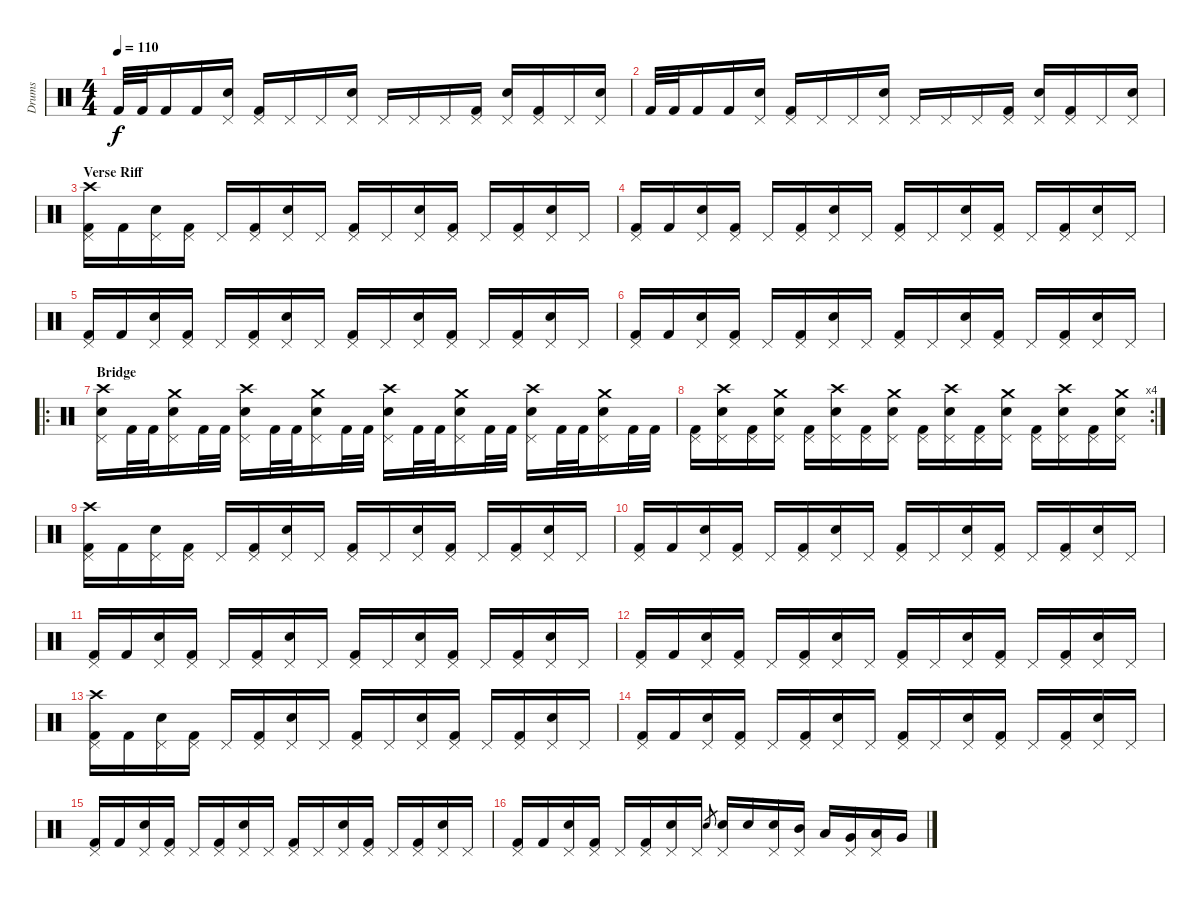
\track ("Drums" "Drums") {instrument percussion}
\staff {score}
\articulation defaults
\ts (4 4)
\tempo 110
\clef neutral
\ks c "Kick (hit) 2".32{dy f} "Kick (hit) 2".32 "Kick (hit) 2".16 "Kick (hit) 2".16
("Snare (hit) 2" "Pedal Hi-Hat (hit)").16 ("Kick (hit) 2" "Pedal Hi-Hat (hit)").16 "Pedal Hi-Hat (hit)".16 "Pedal Hi-Hat (hit)".16 ("Snare (hit) 2" "Pedal Hi-Hat (hit)").16 "Pedal Hi-Hat (hit)".16 "Pedal Hi-Hat (hit)".16 "Pedal Hi-Hat (hit)".16 ("Kick (hit) 2" "Pedal Hi-Hat (hit)").16 ("Snare (hit) 2" "Pedal Hi-Hat (hit)").16 ("Kick (hit) 2" "Pedal Hi-Hat (hit)").16 "Pedal Hi-Hat (hit)".16 ("Snare (hit) 2" "Pedal Hi-Hat (hit)").16 |
"Kick (hit) 2".32 "Kick (hit) 2".32 "Kick (hit) 2".16 "Kick (hit) 2".16 ("Snare (hit) 2" "Pedal Hi-Hat (hit)").16 ("Kick (hit) 2" "Pedal Hi-Hat (hit)").16 "Pedal Hi-Hat (hit)".16 "Pedal Hi-Hat (hit)".16 ("Snare (hit) 2" "Pedal Hi-Hat (hit)").16 "Pedal Hi-Hat (hit)".16 "Pedal Hi-Hat (hit)".16 "Pedal Hi-Hat (hit)".16 ("Kick (hit) 2" "Pedal Hi-Hat (hit)").16 ("Snare (hit) 2" "Pedal Hi-Hat (hit)").16 ("Kick (hit) 2" "Pedal Hi-Hat (hit)").16 "Pedal Hi-Hat (hit)".16 ("Snare (hit) 2" "Pedal Hi-Hat (hit)").16 |
\section ("" "Verse Riff")
("Kick (hit) 2" "Pedal Hi-Hat (hit)" "Crash high (hit)").16 "Kick (hit) 2".16 ("Snare (hit) 2" "Pedal Hi-Hat (hit)").16 ("Kick (hit) 2" "Pedal Hi-Hat (hit)").16 "Pedal Hi-Hat (hit)".16 ("Kick (hit) 2" "Pedal Hi-Hat (hit)").16 ("Snare (hit) 2" "Pedal Hi-Hat (hit)").16 "Pedal Hi-Hat (hit)".16 ("Kick (hit) 2" "Pedal Hi-Hat (hit)").16 "Pedal Hi-Hat (hit)".16 ("Snare (hit) 2" "Pedal Hi-Hat (hit)").16 ("Kick (hit) 2" "Pedal Hi-Hat (hit)").16 "Pedal Hi-Hat (hit)".16 ("Kick (hit) 2" "Pedal Hi-Hat (hit)").16 ("Snare (hit) 2" "Pedal Hi-Hat (hit)").16 "Pedal Hi-Hat (hit)".16 |
("Kick (hit) 2" "Pedal Hi-Hat (hit)").16 "Kick (hit) 2".16 ("Snare (hit) 2" "Pedal Hi-Hat (hit)").16 ("Kick (hit) 2" "Pedal Hi-Hat (hit)").16 "Pedal Hi-Hat (hit)".16 ("Kick (hit) 2" "Pedal Hi-Hat (hit)").16 ("Snare (hit) 2" "Pedal Hi-Hat (hit)").16 "Pedal Hi-Hat (hit)".16 ("Kick (hit) 2" "Pedal Hi-Hat (hit)").16 "Pedal Hi-Hat (hit)".16 ("Snare (hit) 2" "Pedal Hi-Hat (hit)").16 ("Kick (hit) 2" "Pedal Hi-Hat (hit)").16 "Pedal Hi-Hat (hit)".16 ("Kick (hit) 2" "Pedal Hi-Hat (hit)").16 ("Snare (hit) 2" "Pedal Hi-Hat (hit)").16 "Pedal Hi-Hat (hit)".16 |
("Kick (hit) 2" "Pedal Hi-Hat (hit)").16 "Kick (hit) 2".16 ("Snare (hit) 2" "Pedal Hi-Hat (hit)").16 ("Kick (hit) 2" "Pedal Hi-Hat (hit)").16 "Pedal Hi-Hat (hit)".16 ("Kick (hit) 2" "Pedal Hi-Hat (hit)").16 ("Snare (hit) 2" "Pedal Hi-Hat (hit)").16 "Pedal Hi-Hat (hit)".16 ("Kick (hit) 2" "Pedal Hi-Hat (hit)").16 "Pedal Hi-Hat (hit)".16 ("Snare (hit) 2" "Pedal Hi-Hat (hit)").16 ("Kick (hit) 2" "Pedal Hi-Hat (hit)").16 "Pedal Hi-Hat (hit)".16 ("Kick (hit) 2" "Pedal Hi-Hat (hit)").16 ("Snare (hit) 2" "Pedal Hi-Hat (hit)").16 "Pedal Hi-Hat (hit)".16 |
("Kick (hit) 2" "Pedal Hi-Hat (hit)").16 "Kick (hit) 2".16 ("Snare (hit) 2" "Pedal Hi-Hat (hit)").16 ("Kick (hit) 2" "Pedal Hi-Hat (hit)").16 "Pedal Hi-Hat (hit)".16 ("Kick (hit) 2" "Pedal Hi-Hat (hit)").16 ("Snare (hit) 2" "Pedal Hi-Hat (hit)").16 "Pedal Hi-Hat (hit)".16 ("Kick (hit) 2" "Pedal Hi-Hat (hit)").16 "Pedal Hi-Hat (hit)".16 ("Snare (hit) 2" "Pedal Hi-Hat (hit)").16 ("Kick (hit) 2" "Pedal Hi-Hat (hit)").16 "Pedal Hi-Hat (hit)".16 ("Kick (hit) 2" "Pedal Hi-Hat (hit)").16 ("Snare (hit) 2" "Pedal Hi-Hat (hit)").16 "Pedal Hi-Hat (hit)".16 |
\ro
\section ("" "Bridge")
("Snare (hit) 2" "Pedal Hi-Hat (hit)" "Crash high (hit)").16 "Kick (hit) 2".32 "Kick (hit) 2".32 ("Snare (hit) 2" "Pedal Hi-Hat (hit)" "Crash medium (hit)").16 "Kick (hit) 2".32 "Kick (hit) 2".32 ("Snare (hit) 2" "Pedal Hi-Hat (hit)" "Crash high (hit)").16 "Kick (hit) 2".32 "Kick (hit) 2".32 ("Snare (hit) 2" "Pedal Hi-Hat (hit)" "Crash medium (hit)").16 "Kick (hit) 2".32 "Kick (hit) 2".32 ("Snare (hit) 2" "Pedal Hi-Hat (hit)" "Crash high (hit)").16 "Kick (hit) 2".32 "Kick (hit) 2".32 ("Snare (hit) 2" "Pedal Hi-Hat (hit)" "Crash medium (hit)").16 "Kick (hit) 2".32 "Kick (hit) 2".32 ("Snare (hit) 2" "Pedal Hi-Hat (hit)" "Crash high (hit)").16 "Kick (hit) 2".32 "Kick (hit) 2".32 ("Snare (hit) 2" "Pedal Hi-Hat (hit)" "Crash medium (hit)").16 "Kick (hit) 2".32 "Kick (hit) 2".32 |
\rc 4
("Kick (hit) 2" "Pedal Hi-Hat (hit)").16 ("Snare (hit) 2" "Pedal Hi-Hat (hit)" "Crash high (hit)").16 ("Kick (hit) 2" "Pedal Hi-Hat (hit)").16 ("Snare (hit) 2" "Pedal Hi-Hat (hit)" "Crash medium (hit)").16 ("Kick (hit) 2" "Pedal Hi-Hat (hit)").16 ("Snare (hit) 2" "Pedal Hi-Hat (hit)" "Crash high (hit)").16 ("Kick (hit) 2" "Pedal Hi-Hat (hit)").16 ("Snare (hit) 2" "Pedal Hi-Hat (hit)" "Crash medium (hit)").16 ("Kick (hit) 2" "Pedal Hi-Hat (hit)").16 ("Snare (hit) 2" "Pedal Hi-Hat (hit)" "Crash high (hit)").16 ("Kick (hit) 2" "Pedal Hi-Hat (hit)").16 ("Snare (hit) 2" "Pedal Hi-Hat (hit)" "Crash medium (hit)").16 ("Kick (hit) 2" "Pedal Hi-Hat (hit)").16 ("Snare (hit) 2" "Pedal Hi-Hat (hit)" "Crash high (hit)").16 ("Kick (hit) 2" "Pedal Hi-Hat (hit)").16 ("Snare (hit) 2" "Pedal Hi-Hat (hit)" "Crash medium (hit)").16 |
("Kick (hit) 2" "Pedal Hi-Hat (hit)" "Crash high (hit)").16 "Kick (hit) 2".16 ("Snare (hit) 2" "Pedal Hi-Hat (hit)").16 ("Kick (hit) 2" "Pedal Hi-Hat (hit)").16 "Pedal Hi-Hat (hit)".16 ("Kick (hit) 2" "Pedal Hi-Hat (hit)").16 ("Snare (hit) 2" "Pedal Hi-Hat (hit)").16 "Pedal Hi-Hat (hit)".16 ("Kick (hit) 2" "Pedal Hi-Hat (hit)").16 "Pedal Hi-Hat (hit)".16 ("Snare (hit) 2" "Pedal Hi-Hat (hit)").16 ("Kick (hit) 2" "Pedal Hi-Hat (hit)").16 "Pedal Hi-Hat (hit)".16 ("Kick (hit) 2" "Pedal Hi-Hat (hit)").16 ("Snare (hit) 2" "Pedal Hi-Hat (hit)").16 "Pedal Hi-Hat (hit)".16 |
("Kick (hit) 2" "Pedal Hi-Hat (hit)").16 "Kick (hit) 2".16 ("Snare (hit) 2" "Pedal Hi-Hat (hit)").16 ("Kick (hit) 2" "Pedal Hi-Hat (hit)").16 "Pedal Hi-Hat (hit)".16 ("Kick (hit) 2" "Pedal Hi-Hat (hit)").16 ("Snare (hit) 2" "Pedal Hi-Hat (hit)").16 "Pedal Hi-Hat (hit)".16 ("Kick (hit) 2" "Pedal Hi-Hat (hit)").16 "Pedal Hi-Hat (hit)".16 ("Snare (hit) 2" "Pedal Hi-Hat (hit)").16 ("Kick (hit) 2" "Pedal Hi-Hat (hit)").16 "Pedal Hi-Hat (hit)".16 ("Kick (hit) 2" "Pedal Hi-Hat (hit)").16 ("Snare (hit) 2" "Pedal Hi-Hat (hit)").16 "Pedal Hi-Hat (hit)".16 |
("Kick (hit) 2" "Pedal Hi-Hat (hit)").16 "Kick (hit) 2".16 ("Snare (hit) 2" "Pedal Hi-Hat (hit)").16 ("Kick (hit) 2" "Pedal Hi-Hat (hit)").16 "Pedal Hi-Hat (hit)".16 ("Kick (hit) 2" "Pedal Hi-Hat (hit)").16 ("Snare (hit) 2" "Pedal Hi-Hat (hit)").16 "Pedal Hi-Hat (hit)".16 ("Kick (hit) 2" "Pedal Hi-Hat (hit)").16 "Pedal Hi-Hat (hit)".16 ("Snare (hit) 2" "Pedal Hi-Hat (hit)").16 ("Kick (hit) 2" "Pedal Hi-Hat (hit)").16 "Pedal Hi-Hat (hit)".16 ("Kick (hit) 2" "Pedal Hi-Hat (hit)").16 ("Snare (hit) 2" "Pedal Hi-Hat (hit)").16 "Pedal Hi-Hat (hit)".16 |
("Kick (hit) 2" "Pedal Hi-Hat (hit)").16 "Kick (hit) 2".16 ("Snare (hit) 2" "Pedal Hi-Hat (hit)").16 ("Kick (hit) 2" "Pedal Hi-Hat (hit)").16 "Pedal Hi-Hat (hit)".16 ("Kick (hit) 2" "Pedal Hi-Hat (hit)").16 ("Snare (hit) 2" "Pedal Hi-Hat (hit)").16 "Pedal Hi-Hat (hit)".16 ("Kick (hit) 2" "Pedal Hi-Hat (hit)").16 "Pedal Hi-Hat (hit)".16 ("Snare (hit) 2" "Pedal Hi-Hat (hit)").16 ("Kick (hit) 2" "Pedal Hi-Hat (hit)").16 "Pedal Hi-Hat (hit)".16 ("Kick (hit) 2" "Pedal Hi-Hat (hit)").16 ("Snare (hit) 2" "Pedal Hi-Hat (hit)").16 "Pedal Hi-Hat (hit)".16 |
("Kick (hit) 2" "Pedal Hi-Hat (hit)" "Crash high (hit)").16 "Kick (hit) 2".16 ("Snare (hit) 2" "Pedal Hi-Hat (hit)").16 ("Kick (hit) 2" "Pedal Hi-Hat (hit)").16 "Pedal Hi-Hat (hit)".16 ("Kick (hit) 2" "Pedal Hi-Hat (hit)").16 ("Snare (hit) 2" "Pedal Hi-Hat (hit)").16 "Pedal Hi-Hat (hit)".16 ("Kick (hit) 2" "Pedal Hi-Hat (hit)").16 "Pedal Hi-Hat (hit)".16 ("Snare (hit) 2" "Pedal Hi-Hat (hit)").16 ("Kick (hit) 2" "Pedal Hi-Hat (hit)").16 "Pedal Hi-Hat (hit)".16 ("Kick (hit) 2" "Pedal Hi-Hat (hit)").16 ("Snare (hit) 2" "Pedal Hi-Hat (hit)").16 "Pedal Hi-Hat (hit)".16 |
("Kick (hit) 2" "Pedal Hi-Hat (hit)").16 "Kick (hit) 2".16 ("Snare (hit) 2" "Pedal Hi-Hat (hit)").16 ("Kick (hit) 2" "Pedal Hi-Hat (hit)").16 "Pedal Hi-Hat (hit)".16 ("Kick (hit) 2" "Pedal Hi-Hat (hit)").16 ("Snare (hit) 2" "Pedal Hi-Hat (hit)").16 "Pedal Hi-Hat (hit)".16 ("Kick (hit) 2" "Pedal Hi-Hat (hit)").16 "Pedal Hi-Hat (hit)".16 ("Snare (hit) 2" "Pedal Hi-Hat (hit)").16 ("Kick (hit) 2" "Pedal Hi-Hat (hit)").16 "Pedal Hi-Hat (hit)".16 ("Kick (hit) 2" "Pedal Hi-Hat (hit)").16 ("Snare (hit) 2" "Pedal Hi-Hat (hit)").16 "Pedal Hi-Hat (hit)".16 |
("Kick (hit) 2" "Pedal Hi-Hat (hit)").16 "Kick (hit) 2".16 ("Snare (hit) 2" "Pedal Hi-Hat (hit)").16 ("Kick (hit) 2" "Pedal Hi-Hat (hit)").16 "Pedal Hi-Hat (hit)".16 ("Kick (hit) 2" "Pedal Hi-Hat (hit)").16 ("Snare (hit) 2" "Pedal Hi-Hat (hit)").16 "Pedal Hi-Hat (hit)".16 ("Kick (hit) 2" "Pedal Hi-Hat (hit)").16 "Pedal Hi-Hat (hit)".16 ("Snare (hit) 2" "Pedal Hi-Hat (hit)").16 ("Kick (hit) 2" "Pedal Hi-Hat (hit)").16 "Pedal Hi-Hat (hit)".16 ("Kick (hit) 2" "Pedal Hi-Hat (hit)").16 ("Snare (hit) 2" "Pedal Hi-Hat (hit)").16 "Pedal Hi-Hat (hit)".16 |
("Kick (hit) 2" "Pedal Hi-Hat (hit)").16 "Kick (hit) 2".16 ("Snare (hit) 2" "Pedal Hi-Hat (hit)").16 ("Kick (hit) 2" "Pedal Hi-Hat (hit)").16 "Pedal Hi-Hat (hit)".16 ("Kick (hit) 2" "Pedal Hi-Hat (hit)").16 ("Snare (hit) 2" "Pedal Hi-Hat (hit)").16 "Pedal Hi-Hat (hit)".16 "Snare (hit) 2".8{gr} ("Snare (hit) 2" "Pedal Hi-Hat (hit)").16 "Snare (hit) 2".16 ("Snare (hit) 2" "Pedal Hi-Hat (hit)").16 ("Mid Tom (hit)" "Pedal Hi-Hat (hit)").16 "Low Tom (hit)".16 ("Very Low Tom (hit)" "Pedal Hi-Hat (hit)").16 ("Low Floor Tom (hit)" "Pedal Hi-Hat (hit)").16 "Very Low Tom (hit)".16
